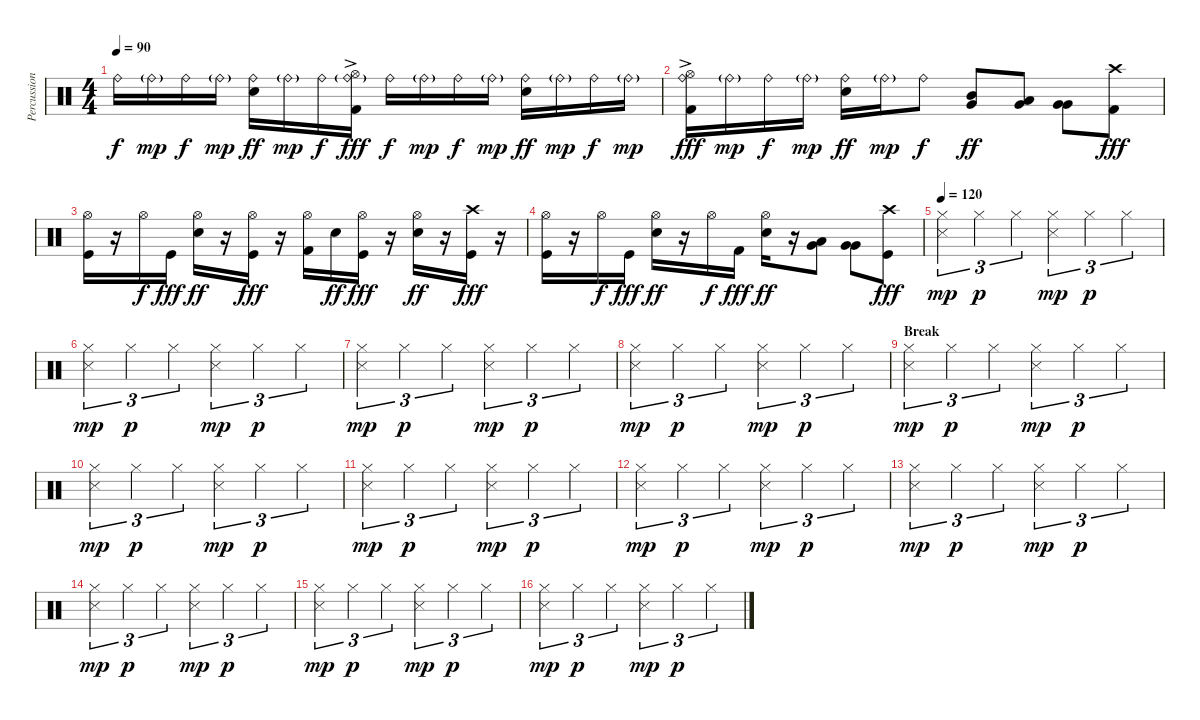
\track ("Percussion" "Percussion") {instrument percussion}
\staff {score}
\articulation defaults
\ts (4 4)
\tempo 90
\clef neutral
\ks c "Ride (bell)".16{dy f} "Ride (bell)"{g}.16{dy mp} "Ride (bell)".16{dy f} "Ride (bell)"{g}.16{dy mp}
("Ride (bell)" "Snare (hit) 2").16{dy ff} "Ride (bell)"{g}.16{dy mp} "Ride (bell)".16{dy f} ("Hi-Hat (open)"{ac} "Ride (bell)"{g} "Kick (hit) 2").16{dy fff} "Ride (bell)".16{dy f} "Ride (bell)"{g}.16{dy mp} "Ride (bell)".16{dy f} "Ride (bell)"{g}.16{dy mp} ("Ride (bell)" "Snare (hit) 2").16{dy ff} "Ride (bell)"{g}.16{dy mp} "Ride (bell)".16{dy f} "Ride (bell)"{g}.16{dy mp} |
("Hi-Hat (open)"{ac} "Ride (bell)" "Kick (hit) 2").16{dy fff} "Ride (bell)"{g}.16{dy mp} "Ride (bell)".16{dy f} "Ride (bell)"{g}.16{dy mp} ("Ride (bell)" "Snare (hit) 2").16{dy ff} "Ride (bell)"{g}.16{dy mp} "Ride (bell)".8{dy f} ("Mid Tom (hit)" "Very Low Tom (hit)").8{dy ff} ("Low Tom (hit)" "Very Low Tom (hit)").8 ("Very Low Tom (hit)" "Very Low Tom (hit)").8 ("Crash high (hit)" "Kick (hit) 2").8{dy fff} |
("Hi-Hat (open)" "Kick (hit)").16 r.16 "Hi-Hat (open)".16{dy f} "Kick (hit)".16{dy fff} ("Hi-Hat (open)" "Snare (hit) 2").16{dy ff} r.16 ("Hi-Hat (open)" "Kick (hit)").16{dy fff} r.16 ("Hi-Hat (open)" "Kick (hit) 2").16 "Snare (hit) 2".16{dy ff} ("Hi-Hat (open)" "Kick (hit)").16{dy fff} r.16 ("Hi-Hat (open)" "Snare (hit) 2").16{dy ff} r.16 ("Crash high (hit)" "Kick (hit)").16{dy fff} r.16 |
("Hi-Hat (open)" "Kick (hit)").16 r.16 "Hi-Hat (open)".16{dy f} "Kick (hit)".16{dy fff} ("Hi-Hat (open)" "Snare (hit) 2").16{dy ff} r.16 "Hi-Hat (open)".16{dy f} "Kick (hit) 2".16{dy fff} ("Hi-Hat (open)" "Snare (hit) 2").16{dy ff} r.16 ("Low Tom (hit)" "Very Low Tom (hit)").8 ("Very Low Tom (hit)" "Very Low Tom (hit)").8 ("Crash high (hit)" "Kick (hit)").8{dy fff} |
\tempo 120
("Hi-Hat (closed)" "Snare (side stick) 3").4{tu (3 2) dy mp} "Hi-Hat (closed)".4{tu (3 2) dy p} "Hi-Hat (closed)".4{tu (3 2)} ("Hi-Hat (closed)" "Snare (side stick) 3").4{tu (3 2) dy mp} "Hi-Hat (closed)".4{tu (3 2) dy p} "Hi-Hat (closed)".4{tu (3 2)} |
("Hi-Hat (closed)" "Snare (side stick) 3").4{tu (3 2) dy mp} "Hi-Hat (closed)".4{tu (3 2) dy p} "Hi-Hat (closed)".4{tu (3 2)} ("Hi-Hat (closed)" "Snare (side stick) 3").4{tu (3 2) dy mp} "Hi-Hat (closed)".4{tu (3 2) dy p} "Hi-Hat (closed)".4{tu (3 2)} |
("Hi-Hat (closed)" "Snare (side stick) 3").4{tu (3 2) dy mp} "Hi-Hat (closed)".4{tu (3 2) dy p} "Hi-Hat (closed)".4{tu (3 2)} ("Hi-Hat (closed)" "Snare (side stick) 3").4{tu (3 2) dy mp} "Hi-Hat (closed)".4{tu (3 2) dy p} "Hi-Hat (closed)".4{tu (3 2)} |
("Hi-Hat (closed)" "Snare (side stick) 3").4{tu (3 2) dy mp} "Hi-Hat (closed)".4{tu (3 2) dy p} "Hi-Hat (closed)".4{tu (3 2)} ("Hi-Hat (closed)" "Snare (side stick) 3").4{tu (3 2) dy mp} "Hi-Hat (closed)".4{tu (3 2) dy p} "Hi-Hat (closed)".4{tu (3 2)} |
\section ("" "Break")
("Hi-Hat (closed)" "Snare (side stick) 3").4{tu (3 2) dy mp} "Hi-Hat (closed)".4{tu (3 2) dy p} "Hi-Hat (closed)".4{tu (3 2)} ("Hi-Hat (closed)" "Snare (side stick) 3").4{tu (3 2) dy mp} "Hi-Hat (closed)".4{tu (3 2) dy p} "Hi-Hat (closed)".4{tu (3 2)} |
("Hi-Hat (closed)" "Snare (side stick) 3").4{tu (3 2) dy mp} "Hi-Hat (closed)".4{tu (3 2) dy p} "Hi-Hat (closed)".4{tu (3 2)} ("Hi-Hat (closed)" "Snare (side stick) 3").4{tu (3 2) dy mp} "Hi-Hat (closed)".4{tu (3 2) dy p} "Hi-Hat (closed)".4{tu (3 2)} |
("Hi-Hat (closed)" "Snare (side stick) 3").4{tu (3 2) dy mp} "Hi-Hat (closed)".4{tu (3 2) dy p} "Hi-Hat (closed)".4{tu (3 2)} ("Hi-Hat (closed)" "Snare (side stick) 3").4{tu (3 2) dy mp} "Hi-Hat (closed)".4{tu (3 2) dy p} "Hi-Hat (closed)".4{tu (3 2)} |
("Hi-Hat (closed)" "Snare (side stick) 3").4{tu (3 2) dy mp} "Hi-Hat (closed)".4{tu (3 2) dy p} "Hi-Hat (closed)".4{tu (3 2)} ("Hi-Hat (closed)" "Snare (side stick) 3").4{tu (3 2) dy mp} "Hi-Hat (closed)".4{tu (3 2) dy p} "Hi-Hat (closed)".4{tu (3 2)} |
("Hi-Hat (closed)" "Snare (side stick) 3").4{tu (3 2) dy mp} "Hi-Hat (closed)".4{tu (3 2) dy p} "Hi-Hat (closed)".4{tu (3 2)} ("Hi-Hat (closed)" "Snare (side stick) 3").4{tu (3 2) dy mp} "Hi-Hat (closed)".4{tu (3 2) dy p} "Hi-Hat (closed)".4{tu (3 2)} |
("Hi-Hat (closed)" "Snare (side stick) 3").4{tu (3 2) dy mp} "Hi-Hat (closed)".4{tu (3 2) dy p} "Hi-Hat (closed)".4{tu (3 2)} ("Hi-Hat (closed)" "Snare (side stick) 3").4{tu (3 2) dy mp} "Hi-Hat (closed)".4{tu (3 2) dy p} "Hi-Hat (closed)".4{tu (3 2)} |
("Hi-Hat (closed)" "Snare (side stick) 3").4{tu (3 2) dy mp} "Hi-Hat (closed)".4{tu (3 2) dy p} "Hi-Hat (closed)".4{tu (3 2)} ("Hi-Hat (closed)" "Snare (side stick) 3").4{tu (3 2) dy mp} "Hi-Hat (closed)".4{tu (3 2) dy p} "Hi-Hat (closed)".4{tu (3 2)} |
("Hi-Hat (closed)" "Snare (side stick) 3").4{tu (3 2) dy mp} "Hi-Hat (closed)".4{tu (3 2) dy p} "Hi-Hat (closed)".4{tu (3 2)} ("Hi-Hat (closed)" "Snare (side stick) 3").4{tu (3 2) dy mp} "Hi-Hat (closed)".4{tu (3 2) dy p} "Hi-Hat (closed)".4{tu (3 2)}
